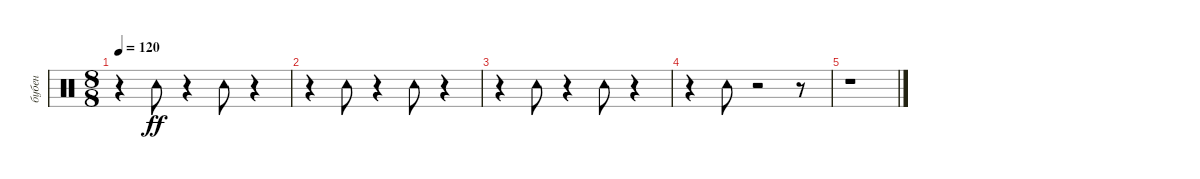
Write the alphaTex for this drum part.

\track ("бубен" "бубен") {instrument percussion}
\staff {score}
\articulation defaults
\ts (8 8)
\tempo 120
\clef neutral
\ks c
r.4{dy ff} "Tambourine (hit)".8 r.4 "Tambourine (hit)".8 r.4 |
r.4 "Tambourine (hit)".8 r.4 "Tambourine (hit)".8 r.4 |
r.4 "Tambourine (hit)".8 r.4 "Tambourine (hit)".8 r.4 |
r.4 "Tambourine (hit)".8 r.2 r.8 |
r.1
